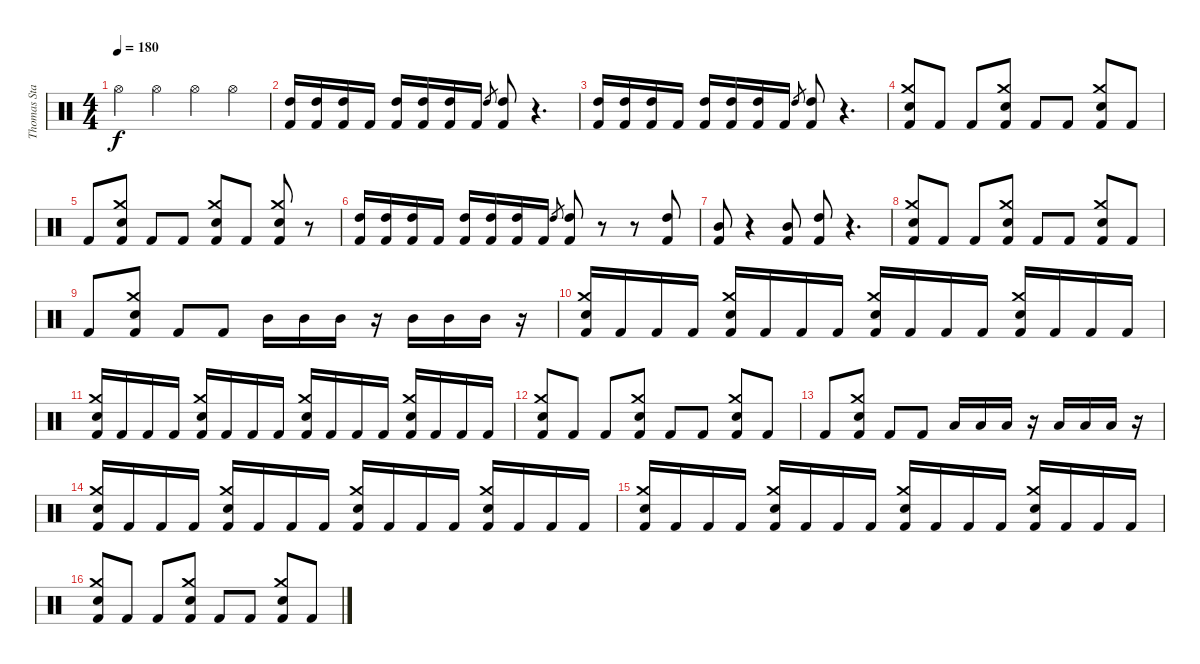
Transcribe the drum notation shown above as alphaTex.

\track ("Thomas Stauch" "Thomas Sta") {instrument percussion}
\staff {score}
\articulation defaults
\ts (4 4)
\tempo 180
\clef neutral
\ks c "Hi-Hat (open)".4{dy f} "Hi-Hat (open)".4 "Hi-Hat (open)".4 "Hi-Hat (open)".4
|
("High Tom (hit)" "Kick (hit) 2").16 ("High Tom (hit)" "Kick (hit) 2").16 ("High Tom (hit)" "Kick (hit) 2").16 "Kick (hit) 2".16 ("High Tom (hit)" "Kick (hit) 2").16 ("High Tom (hit)" "Kick (hit) 2").16 ("High Tom (hit)" "Kick (hit) 2").16 "Kick (hit) 2".16 "High Tom (hit)".8{gr} ("High Tom (hit)" "Kick (hit) 2").8 r.4{d} |
("High Tom (hit)" "Kick (hit) 2").16 ("High Tom (hit)" "Kick (hit) 2").16 ("High Tom (hit)" "Kick (hit) 2").16 "Kick (hit) 2".16 ("High Tom (hit)" "Kick (hit) 2").16 ("High Tom (hit)" "Kick (hit) 2").16 ("High Tom (hit)" "Kick (hit) 2").16 "Kick (hit) 2".16 "High Tom (hit)".8{gr} ("High Tom (hit)" "Kick (hit) 2").8 r.4{d} |
("Crash medium (hit)" "Electric Snare (hit)" "Kick (hit) 2").8 "Kick (hit) 2".8 "Kick (hit) 2".8 ("Crash medium (hit)" "Electric Snare (hit)" "Kick (hit) 2").8 "Kick (hit) 2".8 "Kick (hit) 2".8 ("Crash medium (hit)" "Electric Snare (hit)" "Kick (hit) 2").8 "Kick (hit) 2".8 |
"Kick (hit) 2".8 ("Crash medium (hit)" "Electric Snare (hit)" "Kick (hit) 2").8 "Kick (hit) 2".8 "Kick (hit) 2".8 ("Crash medium (hit)" "Electric Snare (hit)" "Kick (hit) 2").8 "Kick (hit) 2".8 ("Crash medium (hit)" "Electric Snare (hit)" "Kick (hit) 2").8 r.8 |
("High Tom (hit)" "Kick (hit) 2").16 ("High Tom (hit)" "Kick (hit) 2").16 ("High Tom (hit)" "Kick (hit) 2").16 "Kick (hit) 2".16 ("High Tom (hit)" "Kick (hit) 2").16 ("High Tom (hit)" "Kick (hit) 2").16 ("High Tom (hit)" "Kick (hit) 2").16 "Kick (hit) 2".16 "High Tom (hit)".8{gr} ("High Tom (hit)" "Kick (hit) 2").8 r.8 r.8 ("High Tom (hit)" "Kick (hit) 2").8 |
("Mid Tom (hit)" "Kick (hit) 2").8 r.4 ("Mid Tom (hit)" "Kick (hit) 2").8 ("High Tom (hit)" "Kick (hit) 2").8 r.4{d} |
("Crash medium (hit)" "Electric Snare (hit)" "Kick (hit) 2").8 "Kick (hit) 2".8 "Kick (hit) 2".8 ("Crash medium (hit)" "Electric Snare (hit)" "Kick (hit) 2").8 "Kick (hit) 2".8 "Kick (hit) 2".8 ("Crash medium (hit)" "Electric Snare (hit)" "Kick (hit) 2").8 "Kick (hit) 2".8 |
"Kick (hit) 2".8 ("Crash medium (hit)" "Electric Snare (hit)" "Kick (hit) 2").8 "Kick (hit) 2".8 "Kick (hit) 2".8 "Mid Tom (hit)".16 "Mid Tom (hit)".16 "Mid Tom (hit)".16 r.16 "Mid Tom (hit)".16 "Mid Tom (hit)".16 "Mid Tom (hit)".16 r.16 |
("Crash medium (hit)" "Electric Snare (hit)" "Kick (hit) 2").16 "Kick (hit) 2".16 "Kick (hit) 2".16 "Kick (hit) 2".16 ("Crash medium (hit)" "Electric Snare (hit)" "Kick (hit) 2").16 "Kick (hit) 2".16 "Kick (hit) 2".16 "Kick (hit) 2".16 ("Crash medium (hit)" "Electric Snare (hit)" "Kick (hit) 2").16 "Kick (hit) 2".16 "Kick (hit) 2".16 "Kick (hit) 2".16 ("Crash medium (hit)" "Electric Snare (hit)" "Kick (hit) 2").16 "Kick (hit) 2".16 "Kick (hit) 2".16 "Kick (hit) 2".16 |
("Crash medium (hit)" "Electric Snare (hit)" "Kick (hit) 2").16 "Kick (hit) 2".16 "Kick (hit) 2".16 "Kick (hit) 2".16 ("Crash medium (hit)" "Electric Snare (hit)" "Kick (hit) 2").16 "Kick (hit) 2".16 "Kick (hit) 2".16 "Kick (hit) 2".16 ("Crash medium (hit)" "Electric Snare (hit)" "Kick (hit) 2").16 "Kick (hit) 2".16 "Kick (hit) 2".16 "Kick (hit) 2".16 ("Crash medium (hit)" "Electric Snare (hit)" "Kick (hit) 2").16 "Kick (hit) 2".16 "Kick (hit) 2".16 "Kick (hit) 2".16 |
("Crash medium (hit)" "Electric Snare (hit)" "Kick (hit) 2").8 "Kick (hit) 2".8 "Kick (hit) 2".8 ("Crash medium (hit)" "Electric Snare (hit)" "Kick (hit) 2").8 "Kick (hit) 2".8 "Kick (hit) 2".8 ("Crash medium (hit)" "Electric Snare (hit)" "Kick (hit) 2").8 "Kick (hit) 2".8 |
"Kick (hit) 2".8 ("Crash medium (hit)" "Electric Snare (hit)" "Kick (hit) 2").8 "Kick (hit) 2".8 "Kick (hit) 2".8 "Low Tom (hit)".16 "Low Tom (hit)".16 "Low Tom (hit)".16 r.16 "Low Tom (hit)".16 "Low Tom (hit)".16 "Low Tom (hit)".16 r.16 |
("Crash medium (hit)" "Electric Snare (hit)" "Kick (hit) 2").16 "Kick (hit) 2".16 "Kick (hit) 2".16 "Kick (hit) 2".16 ("Crash medium (hit)" "Electric Snare (hit)" "Kick (hit) 2").16 "Kick (hit) 2".16 "Kick (hit) 2".16 "Kick (hit) 2".16 ("Crash medium (hit)" "Electric Snare (hit)" "Kick (hit) 2").16 "Kick (hit) 2".16 "Kick (hit) 2".16 "Kick (hit) 2".16 ("Crash medium (hit)" "Electric Snare (hit)" "Kick (hit) 2").16 "Kick (hit) 2".16 "Kick (hit) 2".16 "Kick (hit) 2".16 |
("Crash medium (hit)" "Electric Snare (hit)" "Kick (hit) 2").16 "Kick (hit) 2".16 "Kick (hit) 2".16 "Kick (hit) 2".16 ("Crash medium (hit)" "Electric Snare (hit)" "Kick (hit) 2").16 "Kick (hit) 2".16 "Kick (hit) 2".16 "Kick (hit) 2".16 ("Crash medium (hit)" "Electric Snare (hit)" "Kick (hit) 2").16 "Kick (hit) 2".16 "Kick (hit) 2".16 "Kick (hit) 2".16 ("Crash medium (hit)" "Electric Snare (hit)" "Kick (hit) 2").16 "Kick (hit) 2".16 "Kick (hit) 2".16 "Kick (hit) 2".16 |
("Crash medium (hit)" "Electric Snare (hit)" "Kick (hit) 2").8 "Kick (hit) 2".8 "Kick (hit) 2".8 ("Crash medium (hit)" "Electric Snare (hit)" "Kick (hit) 2").8 "Kick (hit) 2".8 "Kick (hit) 2".8 ("Crash medium (hit)" "Electric Snare (hit)" "Kick (hit) 2").8 "Kick (hit) 2".8
